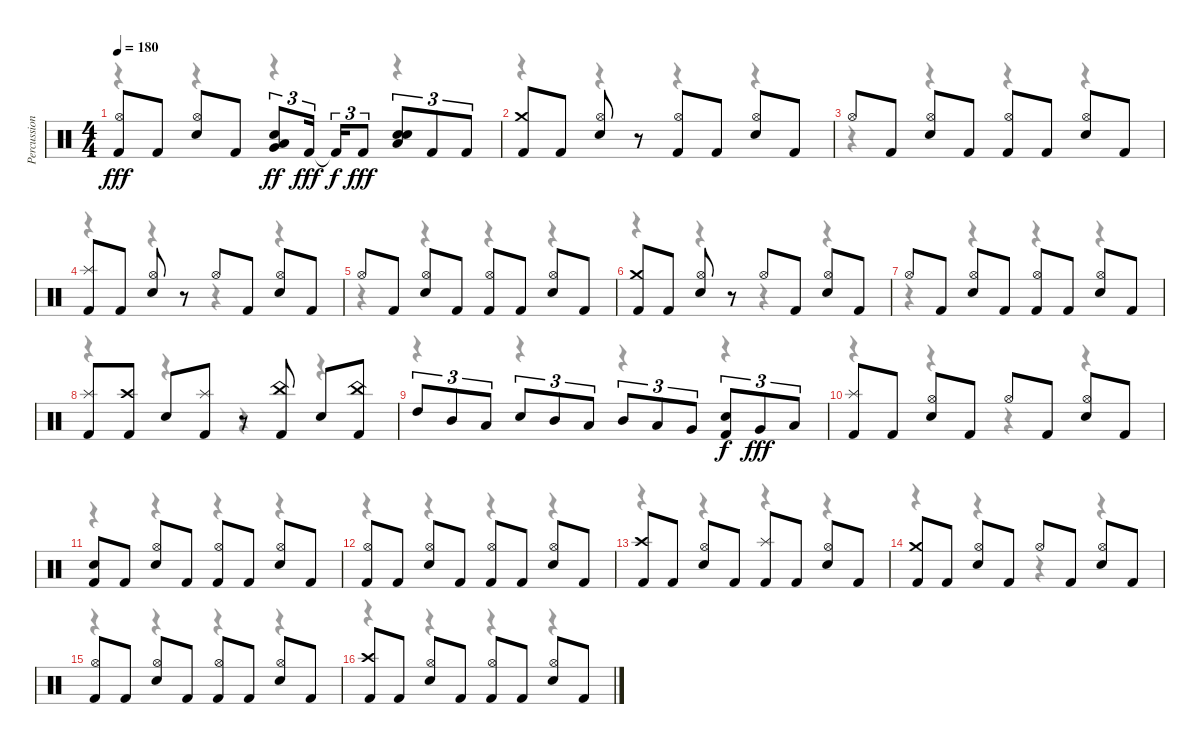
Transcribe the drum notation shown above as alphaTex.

\track ("Percussion" "Percussion") {instrument percussion}
\staff {score}
\articulation defaults
\voice
\ts (4 4)
\tempo 180
\clef neutral
\ks c
("Hi-Hat (open)" "Kick (hit) 2").8{dy fff} "Kick (hit) 2".8 ("Hi-Hat (open)" "Snare (hit) 2").8 "Kick (hit) 2".8 ("Low Floor Tom (hit)" "Very Low Tom (hit)" "Snare (hit)").8{tu (3 2) dy ff} "Kick (hit) 2".16{tu (3 2) dy fff} "Kick (hit) 2"{t}.16{tu (3 2) dy f} "Kick (hit) 2".8{tu (3 2) dy fff} ("Snare (hit) 2" "Low Floor Tom (hit)" "Snare (hit)").8{tu (3 2)} "Kick (hit) 2".8{tu (3 2)} "Kick (hit) 2".8{tu (3 2)} |
("Kick (hit) 2" "Crash medium (hit)").8 "Kick (hit) 2".8 ("Hi-Hat (open)" "Snare (hit) 2").8 r.8 ("Hi-Hat (open)" "Kick (hit) 2").8 "Kick (hit) 2".8 ("Hi-Hat (open)" "Snare (hit) 2").8 "Kick (hit) 2".8 |
"Hi-Hat (open)".8 "Kick (hit) 2".8 ("Hi-Hat (open)" "Snare (hit) 2").8 "Kick (hit) 2".8 ("Hi-Hat (open)" "Kick (hit) 2").8 "Kick (hit) 2".8 ("Hi-Hat (open)" "Snare (hit) 2").8 "Kick (hit) 2".8 |
("Kick (hit) 2" "Splash (hit)").8 "Kick (hit) 2".8 ("Hi-Hat (open)" "Snare (hit) 2").8 r.8 "Hi-Hat (open)".8 "Kick (hit) 2".8 ("Hi-Hat (open)" "Snare (hit) 2").8 "Kick (hit) 2".8 |
"Hi-Hat (open)".8 "Kick (hit) 2".8 ("Hi-Hat (open)" "Snare (hit) 2").8 "Kick (hit) 2".8 ("Hi-Hat (open)" "Kick (hit) 2").8 "Kick (hit) 2".8 ("Hi-Hat (open)" "Snare (hit) 2").8 "Kick (hit) 2".8 |
("Kick (hit) 2" "Crash medium (hit)").8 "Kick (hit) 2".8 ("Hi-Hat (open)" "Snare (hit) 2").8 r.8 "Hi-Hat (open)".8 "Kick (hit) 2".8 ("Hi-Hat (open)" "Snare (hit) 2").8 "Kick (hit) 2".8 |
"Hi-Hat (open)".8 "Kick (hit) 2".8 ("Hi-Hat (open)" "Snare (hit) 2").8 "Kick (hit) 2".8 ("Hi-Hat (open)" "Kick (hit) 2").8 "Kick (hit) 2".8 ("Hi-Hat (open)" "Snare (hit) 2").8 "Kick (hit) 2".8 |
("Kick (hit) 2" "Splash (hit)").8 ("Kick (hit) 2" "Crash high (hit)").8 "Snare (hit) 2".8 ("Kick (hit) 2" "Splash (hit)").8 r.8 ("Kick (hit) 2" "China (hit)").8 "Snare (hit) 2".8 ("Kick (hit) 2" "China (hit)").8 |
"High Tom (hit)".8{tu (3 2)} "Mid Tom (hit)".8{tu (3 2)} "Low Tom (hit)".8{tu (3 2)} "Snare (hit) 2".8{tu (3 2)} "Mid Tom (hit)".8{tu (3 2)} "Low Tom (hit)".8{tu (3 2)} "Mid Tom (hit)".8{tu (3 2)} "Low Tom (hit)".8{tu (3 2)} "Very Low Tom (hit)".8{tu (3 2)} ("Kick (hit) 2" "Snare (hit) 2").8{tu (3 2) dy f} "Very Low Tom (hit)".8{tu (3 2) dy fff} "Low Floor Tom (hit)".8{tu (3 2)} |
("Kick (hit) 2" "Splash (hit)").8 "Kick (hit) 2".8 ("Hi-Hat (open)" "Snare (hit) 2").8 "Kick (hit) 2".8 "Hi-Hat (open)".8 "Kick (hit) 2".8 ("Hi-Hat (open)" "Snare (hit) 2").8 "Kick (hit) 2".8 |
("Kick (hit) 2" "Snare (hit)").8 "Kick (hit) 2".8 ("Hi-Hat (open)" "Snare (hit) 2").8 "Kick (hit) 2".8 ("Hi-Hat (open)" "Kick (hit) 2").8 "Kick (hit) 2".8 ("Hi-Hat (open)" "Snare (hit) 2").8 "Kick (hit) 2".8 |
("Hi-Hat (open)" "Kick (hit) 2").8 "Kick (hit) 2".8 ("Hi-Hat (open)" "Snare (hit) 2").8 "Kick (hit) 2".8 ("Hi-Hat (open)" "Kick (hit) 2").8 "Kick (hit) 2".8 ("Hi-Hat (open)" "Snare (hit) 2").8 "Kick (hit) 2".8 |
("Kick (hit) 2" "Crash high (hit)").8 "Kick (hit) 2".8 ("Hi-Hat (open)" "Snare (hit) 2").8 "Kick (hit) 2".8 ("Kick (hit) 2" "Splash (hit)").8 "Kick (hit) 2".8 ("Hi-Hat (open)" "Snare (hit) 2").8 "Kick (hit) 2".8 |
("Kick (hit) 2" "Crash medium (hit)").8 "Kick (hit) 2".8 ("Hi-Hat (open)" "Snare (hit) 2").8 "Kick (hit) 2".8 "Hi-Hat (open)".8 "Kick (hit) 2".8 ("Hi-Hat (open)" "Snare (hit) 2").8 "Kick (hit) 2".8 |
("Hi-Hat (open)" "Kick (hit) 2").8 "Kick (hit) 2".8 ("Hi-Hat (open)" "Snare (hit) 2").8 "Kick (hit) 2".8 ("Hi-Hat (open)" "Kick (hit) 2").8 "Kick (hit) 2".8 ("Hi-Hat (open)" "Snare (hit) 2").8 "Kick (hit) 2".8 |
("Kick (hit) 2" "Crash high (hit)").8 "Kick (hit) 2".8 ("Hi-Hat (open)" "Snare (hit) 2").8 "Kick (hit) 2".8 ("Hi-Hat (open)" "Kick (hit) 2").8 "Kick (hit) 2".8 ("Hi-Hat (open)" "Snare (hit) 2").8 "Kick (hit) 2".8
\voice
\clef neutral
\ottava regular
\simile none
\ks c
r.4{dy f} r.4 r.4 r.4 |
r.4 r.4 r.4 r.4 |
r.4 r.4 r.4 r.4 |
r.4 r.4 r.4 r.4 |
r.4 r.4 r.4 r.4 |
r.4 r.4 r.4 r.4 |
r.4 r.4 r.4 r.4 |
r.4 r.4 r.4 r.4 |
r.4 r.4 r.4 r.4 |
r.4 r.4 r.4 r.4 |
r.4 r.4 r.4 r.4 |
r.4 r.4 r.4 r.4 |
r.4 r.4 r.4 r.4 |
r.4 r.4 r.4 r.4 |
r.4 r.4 r.4 r.4 |
r.4 r.4 r.4 r.4
